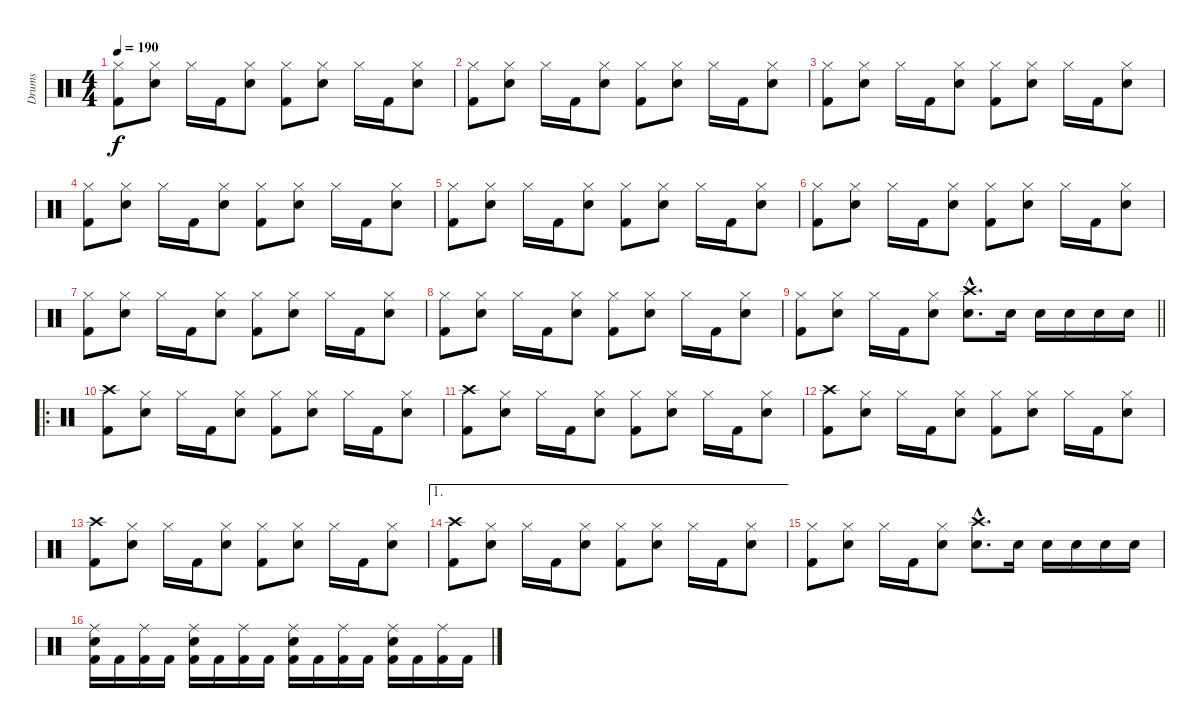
\track ("Drums" "Drums") {instrument percussion}
\staff {score}
\articulation defaults
\ts (4 4)
\tempo 190
\clef neutral
\ks c
("Hi-Hat (closed)" "Kick (hit) 2").8{dy f} ("Hi-Hat (closed)" "Snare (hit) 2").8 "Hi-Hat (closed)".16 "Kick (hit) 2".16 ("Hi-Hat (closed)" "Snare (hit) 2").8 ("Hi-Hat (closed)" "Kick (hit) 2").8 ("Hi-Hat (closed)" "Snare (hit) 2").8 "Hi-Hat (closed)".16 "Kick (hit) 2".16 ("Hi-Hat (closed)" "Snare (hit) 2").8 |
("Hi-Hat (closed)" "Kick (hit) 2").8 ("Hi-Hat (closed)" "Snare (hit) 2").8 "Hi-Hat (closed)".16 "Kick (hit) 2".16 ("Hi-Hat (closed)" "Snare (hit) 2").8 ("Hi-Hat (closed)" "Kick (hit) 2").8 ("Hi-Hat (closed)" "Snare (hit) 2").8 "Hi-Hat (closed)".16 "Kick (hit) 2".16 ("Hi-Hat (closed)" "Snare (hit) 2").8 |
("Hi-Hat (closed)" "Kick (hit) 2").8 ("Hi-Hat (closed)" "Snare (hit) 2").8 "Hi-Hat (closed)".16 "Kick (hit) 2".16 ("Hi-Hat (closed)" "Snare (hit) 2").8 ("Hi-Hat (closed)" "Kick (hit) 2").8 ("Hi-Hat (closed)" "Snare (hit) 2").8 "Hi-Hat (closed)".16 "Kick (hit) 2".16 ("Hi-Hat (closed)" "Snare (hit) 2").8 |
("Hi-Hat (closed)" "Kick (hit) 2").8 ("Hi-Hat (closed)" "Snare (hit) 2").8 "Hi-Hat (closed)".16 "Kick (hit) 2".16 ("Hi-Hat (closed)" "Snare (hit) 2").8 ("Hi-Hat (closed)" "Kick (hit) 2").8 ("Hi-Hat (closed)" "Snare (hit) 2").8 "Hi-Hat (closed)".16 "Kick (hit) 2".16 ("Hi-Hat (closed)" "Snare (hit) 2").8 |
("Hi-Hat (closed)" "Kick (hit) 2").8 ("Hi-Hat (closed)" "Snare (hit) 2").8 "Hi-Hat (closed)".16 "Kick (hit) 2".16 ("Hi-Hat (closed)" "Snare (hit) 2").8 ("Hi-Hat (closed)" "Kick (hit) 2").8 ("Hi-Hat (closed)" "Snare (hit) 2").8 "Hi-Hat (closed)".16 "Kick (hit) 2".16 ("Hi-Hat (closed)" "Snare (hit) 2").8 |
("Hi-Hat (closed)" "Kick (hit) 2").8 ("Hi-Hat (closed)" "Snare (hit) 2").8 "Hi-Hat (closed)".16 "Kick (hit) 2".16 ("Hi-Hat (closed)" "Snare (hit) 2").8 ("Hi-Hat (closed)" "Kick (hit) 2").8 ("Hi-Hat (closed)" "Snare (hit) 2").8 "Hi-Hat (closed)".16 "Kick (hit) 2".16 ("Hi-Hat (closed)" "Snare (hit) 2").8 |
("Hi-Hat (closed)" "Kick (hit) 2").8 ("Hi-Hat (closed)" "Snare (hit) 2").8 "Hi-Hat (closed)".16 "Kick (hit) 2".16 ("Hi-Hat (closed)" "Snare (hit) 2").8 ("Hi-Hat (closed)" "Kick (hit) 2").8 ("Hi-Hat (closed)" "Snare (hit) 2").8 "Hi-Hat (closed)".16 "Kick (hit) 2".16 ("Hi-Hat (closed)" "Snare (hit) 2").8 |
("Hi-Hat (closed)" "Kick (hit) 2").8 ("Hi-Hat (closed)" "Snare (hit) 2").8 "Hi-Hat (closed)".16 "Kick (hit) 2".16 ("Hi-Hat (closed)" "Snare (hit) 2").8 ("Hi-Hat (closed)" "Kick (hit) 2").8 ("Hi-Hat (closed)" "Snare (hit) 2").8 "Hi-Hat (closed)".16 "Kick (hit) 2".16 ("Hi-Hat (closed)" "Snare (hit) 2").8 |
\barLineRight lightlight
("Hi-Hat (closed)" "Kick (hit) 2").8 ("Hi-Hat (closed)" "Snare (hit) 2").8 "Hi-Hat (closed)".16 "Kick (hit) 2".16 ("Hi-Hat (closed)" "Snare (hit) 2").8 ("Crash high (hit)"{hac} "Snare (hit) 2"{hac}).8{d} "Snare (hit) 2".16 "Snare (hit) 2".16 "Snare (hit) 2".16 "Snare (hit) 2".16 "Snare (hit) 2".16 |
\ro
("Crash high (hit)" "Kick (hit) 2").8 ("Hi-Hat (closed)" "Snare (hit) 2").8 "Hi-Hat (closed)".16 "Kick (hit) 2".16 ("Hi-Hat (closed)" "Snare (hit) 2").8 ("Hi-Hat (closed)" "Kick (hit) 2").8 ("Hi-Hat (closed)" "Snare (hit) 2").8 "Hi-Hat (closed)".16 "Kick (hit) 2".16 ("Hi-Hat (closed)" "Snare (hit) 2").8 |
("Crash high (hit)" "Kick (hit) 2").8 ("Hi-Hat (closed)" "Snare (hit) 2").8 "Hi-Hat (closed)".16 "Kick (hit) 2".16 ("Hi-Hat (closed)" "Snare (hit) 2").8 ("Hi-Hat (closed)" "Kick (hit) 2").8 ("Hi-Hat (closed)" "Snare (hit) 2").8 "Hi-Hat (closed)".16 "Kick (hit) 2".16 ("Hi-Hat (closed)" "Snare (hit) 2").8 |
("Crash high (hit)" "Kick (hit) 2").8 ("Hi-Hat (closed)" "Snare (hit) 2").8 "Hi-Hat (closed)".16 "Kick (hit) 2".16 ("Hi-Hat (closed)" "Snare (hit) 2").8 ("Hi-Hat (closed)" "Kick (hit) 2").8 ("Hi-Hat (closed)" "Snare (hit) 2").8 "Hi-Hat (closed)".16 "Kick (hit) 2".16 ("Hi-Hat (closed)" "Snare (hit) 2").8 |
("Crash high (hit)" "Kick (hit) 2").8 ("Hi-Hat (closed)" "Snare (hit) 2").8 "Hi-Hat (closed)".16 "Kick (hit) 2".16 ("Hi-Hat (closed)" "Snare (hit) 2").8 ("Hi-Hat (closed)" "Kick (hit) 2").8 ("Hi-Hat (closed)" "Snare (hit) 2").8 "Hi-Hat (closed)".16 "Kick (hit) 2".16 ("Hi-Hat (closed)" "Snare (hit) 2").8 |
\ae 1
("Crash high (hit)" "Kick (hit) 2").8 ("Hi-Hat (closed)" "Snare (hit) 2").8 "Hi-Hat (closed)".16 "Kick (hit) 2".16 ("Hi-Hat (closed)" "Snare (hit) 2").8 ("Hi-Hat (closed)" "Kick (hit) 2").8 ("Hi-Hat (closed)" "Snare (hit) 2").8 "Hi-Hat (closed)".16 "Kick (hit) 2".16 ("Hi-Hat (closed)" "Snare (hit) 2").8 |
("Hi-Hat (closed)" "Kick (hit) 2").8 ("Hi-Hat (closed)" "Snare (hit) 2").8 "Hi-Hat (closed)".16 "Kick (hit) 2".16 ("Hi-Hat (closed)" "Snare (hit) 2").8 ("Crash high (hit)"{hac} "Snare (hit) 2"{hac}).8{d} "Snare (hit) 2".16 "Snare (hit) 2".16 "Snare (hit) 2".16 "Snare (hit) 2".16 "Snare (hit) 2".16 |
("Ride (middle)" "Snare (hit) 2" "Kick (hit) 2").16 "Kick (hit) 2".16 ("Ride (middle)" "Kick (hit) 2").16 "Kick (hit) 2".16 ("Ride (middle)" "Snare (hit) 2" "Kick (hit) 2").16 "Kick (hit) 2".16 ("Ride (middle)" "Kick (hit) 2").16 "Kick (hit) 2".16 ("Ride (middle)" "Snare (hit) 2" "Kick (hit) 2").16 "Kick (hit) 2".16 ("Ride (middle)" "Kick (hit) 2").16 "Kick (hit) 2".16 ("Ride (middle)" "Snare (hit) 2" "Kick (hit) 2").16 "Kick (hit) 2".16 ("Ride (middle)" "Kick (hit) 2").16 "Kick (hit) 2".16
